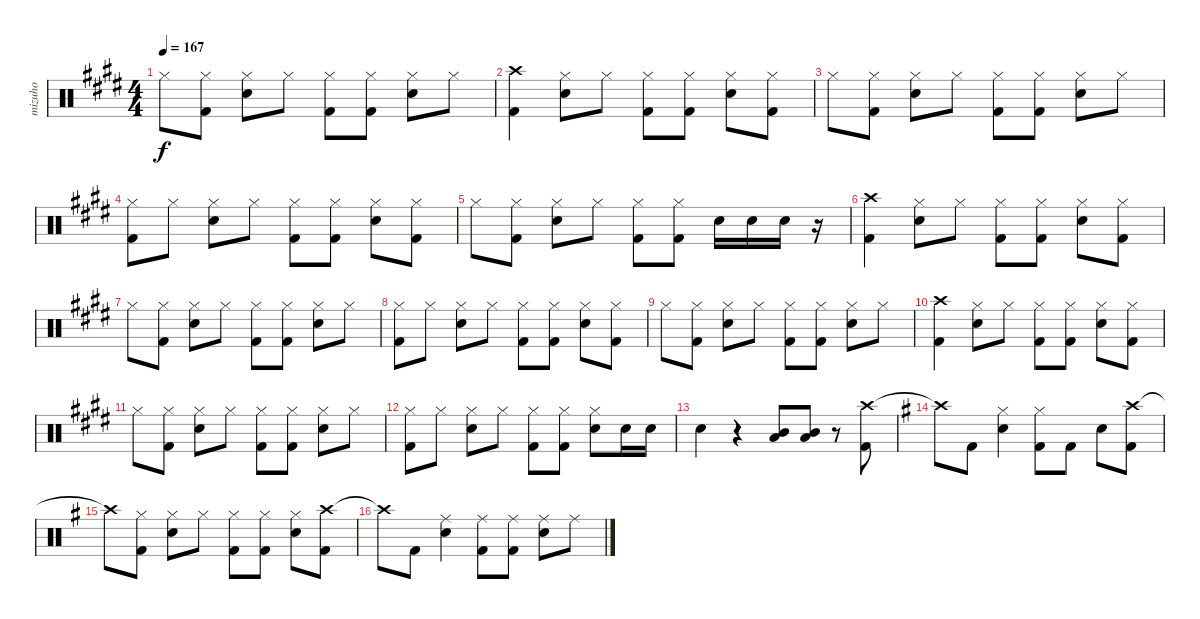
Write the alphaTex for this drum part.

\track ("mizuho" "mizuho") {instrument percussion}
\staff {score}
\articulation defaults
\ts (4 4)
\tempo 167
\clef neutral
\ks c#minor "Hi-Hat (closed)".8{dy f}
("Hi-Hat (closed)" "Kick (hit) 2").8 ("Hi-Hat (closed)" "Electric Snare (hit)").8 "Hi-Hat (closed)".8 ("Hi-Hat (closed)" "Kick (hit) 2").8 ("Hi-Hat (closed)" "Kick (hit) 2").8 ("Hi-Hat (closed)" "Electric Snare (hit)").8 "Hi-Hat (closed)".8 |
("Crash high (hit)" "Kick (hit) 2").4 ("Hi-Hat (closed)" "Electric Snare (hit)").8 "Hi-Hat (closed)".8 ("Hi-Hat (closed)" "Kick (hit) 2").8 ("Hi-Hat (closed)" "Kick (hit) 2").8 ("Hi-Hat (closed)" "Electric Snare (hit)").8 ("Hi-Hat (closed)" "Kick (hit) 2").8 |
"Hi-Hat (closed)".8 ("Hi-Hat (closed)" "Kick (hit) 2").8 ("Hi-Hat (closed)" "Electric Snare (hit)").8 "Hi-Hat (closed)".8 ("Hi-Hat (closed)" "Kick (hit) 2").8 ("Hi-Hat (closed)" "Kick (hit) 2").8 ("Hi-Hat (closed)" "Electric Snare (hit)").8 "Hi-Hat (closed)".8 |
("Hi-Hat (closed)" "Kick (hit) 2").8 "Hi-Hat (closed)".8 ("Hi-Hat (closed)" "Electric Snare (hit)").8 "Hi-Hat (closed)".8 ("Hi-Hat (closed)" "Kick (hit) 2").8 ("Hi-Hat (closed)" "Kick (hit) 2").8 ("Hi-Hat (closed)" "Electric Snare (hit)").8 ("Hi-Hat (closed)" "Kick (hit) 2").8 |
"Hi-Hat (closed)".8 ("Hi-Hat (closed)" "Kick (hit) 2").8 ("Hi-Hat (closed)" "Electric Snare (hit)").8 "Hi-Hat (closed)".8 ("Hi-Hat (closed)" "Kick (hit) 2").8 ("Hi-Hat (closed)" "Kick (hit) 2").8 "Snare (hit) 2".16 "Snare (hit) 2".16 "Snare (hit) 2".16 r.16 |
("Crash high (hit)" "Kick (hit) 2").4 ("Hi-Hat (closed)" "Electric Snare (hit)").8 "Hi-Hat (closed)".8 ("Hi-Hat (closed)" "Kick (hit) 2").8 ("Hi-Hat (closed)" "Kick (hit) 2").8 ("Hi-Hat (closed)" "Electric Snare (hit)").8 ("Hi-Hat (closed)" "Kick (hit) 2").8 |
"Hi-Hat (closed)".8 ("Hi-Hat (closed)" "Kick (hit) 2").8 ("Hi-Hat (closed)" "Electric Snare (hit)").8 "Hi-Hat (closed)".8 ("Hi-Hat (closed)" "Kick (hit) 2").8 ("Hi-Hat (closed)" "Kick (hit) 2").8 ("Hi-Hat (closed)" "Electric Snare (hit)").8 "Hi-Hat (closed)".8 |
("Hi-Hat (closed)" "Kick (hit) 2").8 "Hi-Hat (closed)".8 ("Hi-Hat (closed)" "Electric Snare (hit)").8 "Hi-Hat (closed)".8 ("Hi-Hat (closed)" "Kick (hit) 2").8 ("Hi-Hat (closed)" "Kick (hit) 2").8 ("Hi-Hat (closed)" "Electric Snare (hit)").8 ("Hi-Hat (closed)" "Kick (hit) 2").8 |
"Hi-Hat (closed)".8 ("Hi-Hat (closed)" "Kick (hit) 2").8 ("Hi-Hat (closed)" "Electric Snare (hit)").8 "Hi-Hat (closed)".8 ("Hi-Hat (closed)" "Kick (hit) 2").8 ("Hi-Hat (closed)" "Kick (hit) 2").8 ("Hi-Hat (closed)" "Electric Snare (hit)").8 "Hi-Hat (closed)".8 |
("Crash high (hit)" "Kick (hit) 2").4 ("Hi-Hat (closed)" "Electric Snare (hit)").8 "Hi-Hat (closed)".8 ("Hi-Hat (closed)" "Kick (hit) 2").8 ("Hi-Hat (closed)" "Kick (hit) 2").8 ("Hi-Hat (closed)" "Electric Snare (hit)").8 ("Hi-Hat (closed)" "Kick (hit) 2").8 |
"Hi-Hat (closed)".8 ("Hi-Hat (closed)" "Kick (hit) 2").8 ("Hi-Hat (closed)" "Electric Snare (hit)").8 "Hi-Hat (closed)".8 ("Hi-Hat (closed)" "Kick (hit) 2").8 ("Hi-Hat (closed)" "Kick (hit) 2").8 ("Hi-Hat (closed)" "Electric Snare (hit)").8 "Hi-Hat (closed)".8 |
("Hi-Hat (closed)" "Kick (hit) 2").8 "Hi-Hat (closed)".8 ("Hi-Hat (closed)" "Electric Snare (hit)").8 "Hi-Hat (closed)".8 ("Hi-Hat (closed)" "Kick (hit) 2").8 ("Hi-Hat (closed)" "Kick (hit) 2").8 ("Hi-Hat (closed)" "Electric Snare (hit)").8 "Snare (hit) 2".16 "Snare (hit) 2".16 |
"Electric Snare (hit)".4 r.4 ("Mid Tom (hit)" "Low Floor Tom (hit)").8 ("Mid Tom (hit)" "Low Floor Tom (hit)").8 r.8 ("Crash high (hit)" "Kick (hit) 2").8 |
\ks eminor "Crash high (hit)"{t}.8 "Kick (hit) 2".8
("Hi-Hat (closed)" "Electric Snare (hit)").4 ("Hi-Hat (closed)" "Kick (hit) 2").8 "Kick (hit) 2".8 "Electric Snare (hit)".8 ("Crash high (hit)" "Kick (hit) 2").8 |
"Crash high (hit)"{t}.8 ("Hi-Hat (closed)" "Kick (hit) 2").8 ("Hi-Hat (closed)" "Electric Snare (hit)").8 "Hi-Hat (closed)".8 ("Hi-Hat (closed)" "Kick (hit) 2").8 ("Hi-Hat (closed)" "Kick (hit) 2").8 ("Hi-Hat (closed)" "Electric Snare (hit)").8 ("Crash high (hit)" "Kick (hit) 2").8 |
"Crash high (hit)"{t}.8 "Kick (hit) 2".8 ("Ride (middle)" "Electric Snare (hit)").4 ("Ride (middle)" "Kick (hit) 2").8 ("Ride (middle)" "Kick (hit) 2").8 ("Ride (middle)" "Electric Snare (hit)").8 "Ride (middle)".8
